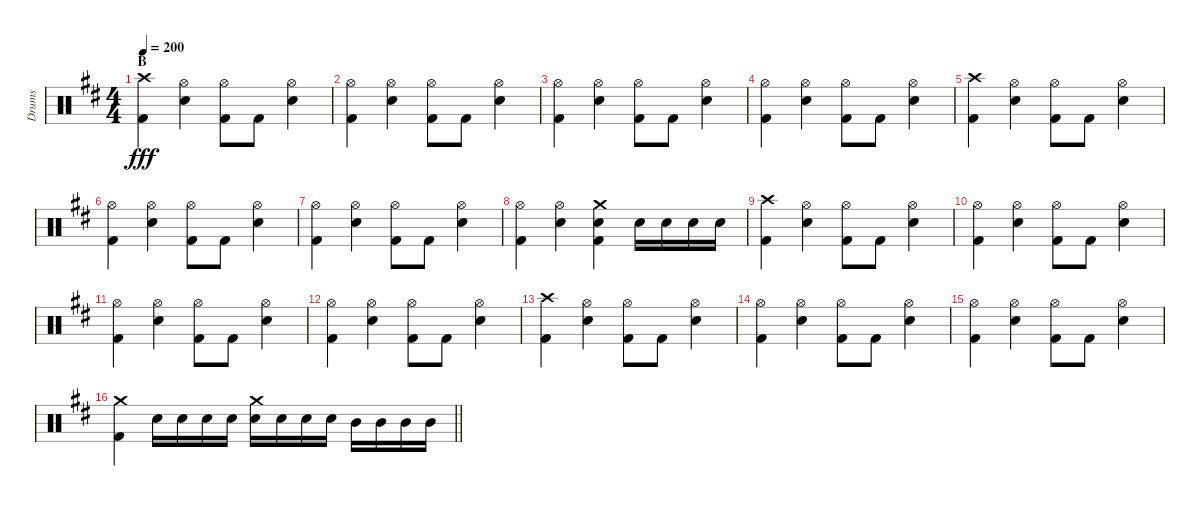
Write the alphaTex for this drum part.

\track ("Drums" "Drums") {instrument percussion}
\staff {score}
\articulation defaults
\ts (4 4)
\section ("" "B")
\tempo 200
\clef neutral
\ks d
("Crash high (hit)" "Kick (hit) 2").4{dy fff} ("Hi-Hat (open)" "Snare (hit) 2").4 ("Hi-Hat (open)" "Kick (hit) 2").8 "Kick (hit) 2".8 ("Hi-Hat (open)" "Snare (hit) 2").4 |
("Hi-Hat (open)" "Kick (hit) 2").4 ("Hi-Hat (open)" "Snare (hit) 2").4 ("Hi-Hat (open)" "Kick (hit) 2").8 "Kick (hit) 2".8 ("Hi-Hat (open)" "Snare (hit) 2").4 |
("Hi-Hat (open)" "Kick (hit) 2").4 ("Hi-Hat (open)" "Snare (hit) 2").4 ("Hi-Hat (open)" "Kick (hit) 2").8 "Kick (hit) 2".8 ("Hi-Hat (open)" "Snare (hit) 2").4 |
("Hi-Hat (open)" "Kick (hit) 2").4 ("Hi-Hat (open)" "Snare (hit) 2").4 ("Hi-Hat (open)" "Kick (hit) 2").8 "Kick (hit) 2".8 ("Hi-Hat (open)" "Snare (hit) 2").4 |
("Crash high (hit)" "Kick (hit) 2").4 ("Hi-Hat (open)" "Snare (hit) 2").4 ("Hi-Hat (open)" "Kick (hit) 2").8 "Kick (hit) 2".8 ("Hi-Hat (open)" "Snare (hit) 2").4 |
("Hi-Hat (open)" "Kick (hit) 2").4 ("Hi-Hat (open)" "Snare (hit) 2").4 ("Hi-Hat (open)" "Kick (hit) 2").8 "Kick (hit) 2".8 ("Hi-Hat (open)" "Snare (hit) 2").4 |
("Hi-Hat (open)" "Kick (hit) 2").4 ("Hi-Hat (open)" "Snare (hit) 2").4 ("Hi-Hat (open)" "Kick (hit) 2").8 "Kick (hit) 2".8 ("Hi-Hat (open)" "Snare (hit) 2").4 |
("Hi-Hat (open)" "Kick (hit) 2").4 ("Hi-Hat (open)" "Snare (hit) 2").4 ("Crash medium (hit)" "Snare (hit) 2" "Kick (hit) 2").4 "Snare (hit) 2".16 "Snare (hit) 2".16 "Snare (hit) 2".16 "Snare (hit) 2".16 |
("Crash high (hit)" "Kick (hit) 2").4 ("Hi-Hat (open)" "Snare (hit) 2").4 ("Hi-Hat (open)" "Kick (hit) 2").8 "Kick (hit) 2".8 ("Hi-Hat (open)" "Snare (hit) 2").4 |
("Hi-Hat (open)" "Kick (hit) 2").4 ("Hi-Hat (open)" "Snare (hit) 2").4 ("Hi-Hat (open)" "Kick (hit) 2").8 "Kick (hit) 2".8 ("Hi-Hat (open)" "Snare (hit) 2").4 |
("Hi-Hat (open)" "Kick (hit) 2").4 ("Hi-Hat (open)" "Snare (hit) 2").4 ("Hi-Hat (open)" "Kick (hit) 2").8 "Kick (hit) 2".8 ("Hi-Hat (open)" "Snare (hit) 2").4 |
("Hi-Hat (open)" "Kick (hit) 2").4 ("Hi-Hat (open)" "Snare (hit) 2").4 ("Hi-Hat (open)" "Kick (hit) 2").8 "Kick (hit) 2".8 ("Hi-Hat (open)" "Snare (hit) 2").4 |
("Crash high (hit)" "Kick (hit) 2").4 ("Hi-Hat (open)" "Snare (hit) 2").4 ("Hi-Hat (open)" "Kick (hit) 2").8 "Kick (hit) 2".8 ("Hi-Hat (open)" "Snare (hit) 2").4 |
("Hi-Hat (open)" "Kick (hit) 2").4 ("Hi-Hat (open)" "Snare (hit) 2").4 ("Hi-Hat (open)" "Kick (hit) 2").8 "Kick (hit) 2".8 ("Hi-Hat (open)" "Snare (hit) 2").4 |
("Hi-Hat (open)" "Kick (hit) 2").4 ("Hi-Hat (open)" "Snare (hit) 2").4 ("Hi-Hat (open)" "Kick (hit) 2").8 "Kick (hit) 2".8 ("Hi-Hat (open)" "Snare (hit) 2").4 |
\barLineRight lightlight
("Crash medium (hit)" "Kick (hit) 2").4 "Snare (hit) 2".16 "Snare (hit) 2".16 "Snare (hit) 2".16 "Snare (hit) 2".16 ("Crash medium (hit)" "Snare (hit) 2").16 "Snare (hit) 2".16 "Snare (hit) 2".16 "Snare (hit) 2".16 "Mid Tom (hit)".16 "Mid Tom (hit)".16 "Mid Tom (hit)".16 "Mid Tom (hit)".16
